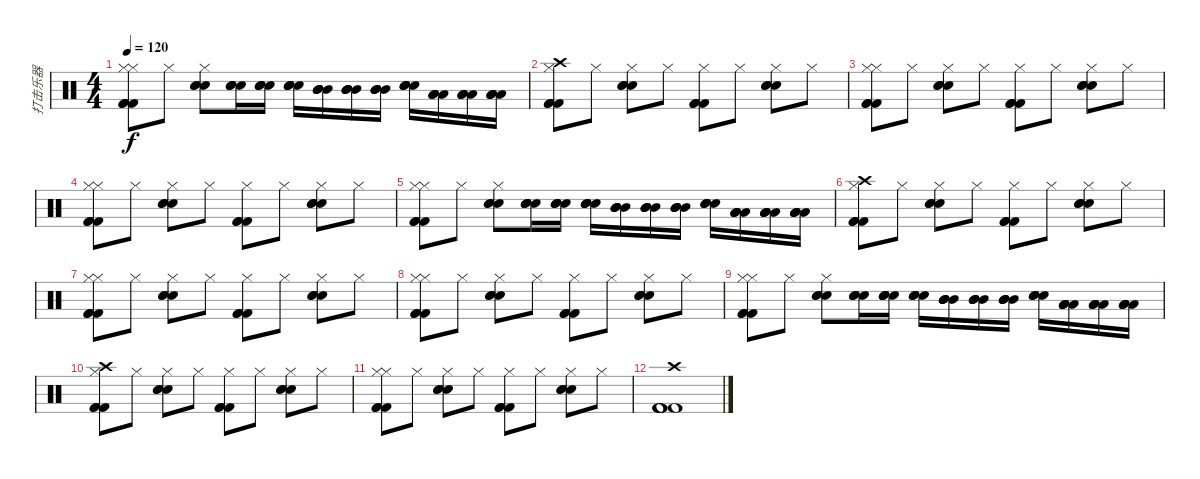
\track ("打击乐器" "打击乐器") {instrument percussion}
\staff {score}
\articulation defaults
\ts (4 4)
\tempo 120
\clef neutral
\ks c
("Kick (hit) 2" "Kick (hit) 2" "Kick (hit) 2" "Hi-Hat (closed)" "Hi-Hat (closed)").8{dy f} "Hi-Hat (closed)".8 ("Snare (hit) 2" "Snare (hit) 2" "Snare (hit) 2" "Hi-Hat (closed)").8 ("Snare (hit) 2" "Snare (hit) 2" "Snare (hit) 2" "Snare (hit) 2").16 ("Snare (hit) 2" "Snare (hit) 2" "Snare (hit) 2" "Snare (hit) 2").16 ("Snare (hit) 2" "Snare (hit) 2" "Snare (hit) 2" "Snare (hit) 2").16 ("Mid Tom (hit)" "Mid Tom (hit)" "Mid Tom (hit)" "Mid Tom (hit)").16 ("Mid Tom (hit)" "Mid Tom (hit)" "Mid Tom (hit)" "Mid Tom (hit)").16 ("Mid Tom (hit)" "Mid Tom (hit)" "Mid Tom (hit)" "Mid Tom (hit)").16 ("Snare (hit) 2" "Snare (hit) 2" "Snare (hit) 2" "Snare (hit) 2").16 ("Low Tom (hit)" "Low Tom (hit)" "Low Tom (hit)" "Low Tom (hit)").16 ("Low Tom (hit)" "Low Tom (hit)" "Low Tom (hit)" "Low Tom (hit)").16 ("Low Tom (hit)" "Low Tom (hit)" "Low Tom (hit)" "Low Tom (hit)").16 |
("Kick (hit) 2" "Kick (hit) 2" "Kick (hit) 2" "Hi-Hat (closed)" "Crash high (hit)").8 "Hi-Hat (closed)".8 ("Snare (hit) 2" "Snare (hit) 2" "Snare (hit) 2" "Hi-Hat (closed)").8 "Hi-Hat (closed)".8 ("Kick (hit) 2" "Kick (hit) 2" "Kick (hit) 2" "Hi-Hat (closed)").8 "Hi-Hat (closed)".8 ("Snare (hit) 2" "Snare (hit) 2" "Snare (hit) 2" "Hi-Hat (closed)").8 "Hi-Hat (closed)".8 |
("Kick (hit) 2" "Kick (hit) 2" "Kick (hit) 2" "Hi-Hat (closed)" "Hi-Hat (closed)").8 "Hi-Hat (closed)".8 ("Snare (hit) 2" "Snare (hit) 2" "Snare (hit) 2" "Hi-Hat (closed)").8 "Hi-Hat (closed)".8 ("Kick (hit) 2" "Kick (hit) 2" "Kick (hit) 2" "Hi-Hat (closed)").8 "Hi-Hat (closed)".8 ("Snare (hit) 2" "Snare (hit) 2" "Snare (hit) 2" "Hi-Hat (closed)").8 "Hi-Hat (closed)".8 |
("Kick (hit) 2" "Kick (hit) 2" "Kick (hit) 2" "Hi-Hat (closed)" "Hi-Hat (closed)").8 "Hi-Hat (closed)".8 ("Snare (hit) 2" "Snare (hit) 2" "Snare (hit) 2" "Hi-Hat (closed)").8 "Hi-Hat (closed)".8 ("Kick (hit) 2" "Kick (hit) 2" "Kick (hit) 2" "Hi-Hat (closed)").8 "Hi-Hat (closed)".8 ("Snare (hit) 2" "Snare (hit) 2" "Snare (hit) 2" "Hi-Hat (closed)").8 "Hi-Hat (closed)".8 |
("Kick (hit) 2" "Kick (hit) 2" "Kick (hit) 2" "Hi-Hat (closed)" "Hi-Hat (closed)").8 "Hi-Hat (closed)".8 ("Snare (hit) 2" "Snare (hit) 2" "Snare (hit) 2" "Hi-Hat (closed)").8 ("Snare (hit) 2" "Snare (hit) 2" "Snare (hit) 2" "Snare (hit) 2").16 ("Snare (hit) 2" "Snare (hit) 2" "Snare (hit) 2" "Snare (hit) 2").16 ("Snare (hit) 2" "Snare (hit) 2" "Snare (hit) 2" "Snare (hit) 2").16 ("Mid Tom (hit)" "Mid Tom (hit)" "Mid Tom (hit)" "Mid Tom (hit)").16 ("Mid Tom (hit)" "Mid Tom (hit)" "Mid Tom (hit)" "Mid Tom (hit)").16 ("Mid Tom (hit)" "Mid Tom (hit)" "Mid Tom (hit)" "Mid Tom (hit)").16 ("Snare (hit) 2" "Snare (hit) 2" "Snare (hit) 2" "Snare (hit) 2").16 ("Low Tom (hit)" "Low Tom (hit)" "Low Tom (hit)" "Low Tom (hit)").16 ("Low Tom (hit)" "Low Tom (hit)" "Low Tom (hit)" "Low Tom (hit)").16 ("Low Tom (hit)" "Low Tom (hit)" "Low Tom (hit)" "Low Tom (hit)").16 |
("Kick (hit) 2" "Kick (hit) 2" "Kick (hit) 2" "Hi-Hat (closed)" "Crash high (hit)").8 "Hi-Hat (closed)".8 ("Snare (hit) 2" "Snare (hit) 2" "Snare (hit) 2" "Hi-Hat (closed)").8 "Hi-Hat (closed)".8 ("Kick (hit) 2" "Kick (hit) 2" "Kick (hit) 2" "Hi-Hat (closed)").8 "Hi-Hat (closed)".8 ("Snare (hit) 2" "Snare (hit) 2" "Snare (hit) 2" "Hi-Hat (closed)").8 "Hi-Hat (closed)".8 |
("Kick (hit) 2" "Kick (hit) 2" "Kick (hit) 2" "Hi-Hat (closed)" "Hi-Hat (closed)").8 "Hi-Hat (closed)".8 ("Snare (hit) 2" "Snare (hit) 2" "Snare (hit) 2" "Hi-Hat (closed)").8 "Hi-Hat (closed)".8 ("Kick (hit) 2" "Kick (hit) 2" "Kick (hit) 2" "Hi-Hat (closed)").8 "Hi-Hat (closed)".8 ("Snare (hit) 2" "Snare (hit) 2" "Snare (hit) 2" "Hi-Hat (closed)").8 "Hi-Hat (closed)".8 |
("Kick (hit) 2" "Kick (hit) 2" "Kick (hit) 2" "Hi-Hat (closed)" "Hi-Hat (closed)").8 "Hi-Hat (closed)".8 ("Snare (hit) 2" "Snare (hit) 2" "Snare (hit) 2" "Hi-Hat (closed)").8 "Hi-Hat (closed)".8 ("Kick (hit) 2" "Kick (hit) 2" "Kick (hit) 2" "Hi-Hat (closed)").8 "Hi-Hat (closed)".8 ("Snare (hit) 2" "Snare (hit) 2" "Snare (hit) 2" "Hi-Hat (closed)").8 "Hi-Hat (closed)".8 |
("Kick (hit) 2" "Kick (hit) 2" "Kick (hit) 2" "Hi-Hat (closed)" "Hi-Hat (closed)").8 "Hi-Hat (closed)".8 ("Snare (hit) 2" "Snare (hit) 2" "Snare (hit) 2" "Hi-Hat (closed)").8 ("Snare (hit) 2" "Snare (hit) 2" "Snare (hit) 2" "Snare (hit) 2").16 ("Snare (hit) 2" "Snare (hit) 2" "Snare (hit) 2" "Snare (hit) 2").16 ("Snare (hit) 2" "Snare (hit) 2" "Snare (hit) 2" "Snare (hit) 2").16 ("Mid Tom (hit)" "Mid Tom (hit)" "Mid Tom (hit)" "Mid Tom (hit)").16 ("Mid Tom (hit)" "Mid Tom (hit)" "Mid Tom (hit)" "Mid Tom (hit)").16 ("Mid Tom (hit)" "Mid Tom (hit)" "Mid Tom (hit)" "Mid Tom (hit)").16 ("Snare (hit) 2" "Snare (hit) 2" "Snare (hit) 2" "Snare (hit) 2").16 ("Low Tom (hit)" "Low Tom (hit)" "Low Tom (hit)" "Low Tom (hit)").16 ("Low Tom (hit)" "Low Tom (hit)" "Low Tom (hit)" "Low Tom (hit)").16 ("Low Tom (hit)" "Low Tom (hit)" "Low Tom (hit)" "Low Tom (hit)").16 |
("Kick (hit) 2" "Kick (hit) 2" "Kick (hit) 2" "Hi-Hat (closed)" "Crash high (hit)").8 "Hi-Hat (closed)".8 ("Snare (hit) 2" "Snare (hit) 2" "Snare (hit) 2" "Hi-Hat (closed)").8 "Hi-Hat (closed)".8 ("Kick (hit) 2" "Kick (hit) 2" "Kick (hit) 2" "Hi-Hat (closed)").8 "Hi-Hat (closed)".8 ("Snare (hit) 2" "Snare (hit) 2" "Snare (hit) 2" "Hi-Hat (closed)").8 "Hi-Hat (closed)".8 |
("Kick (hit) 2" "Kick (hit) 2" "Kick (hit) 2" "Hi-Hat (closed)" "Hi-Hat (closed)").8 "Hi-Hat (closed)".8 ("Snare (hit) 2" "Snare (hit) 2" "Snare (hit) 2" "Hi-Hat (closed)").8 "Hi-Hat (closed)".8 ("Kick (hit) 2" "Kick (hit) 2" "Kick (hit) 2" "Hi-Hat (closed)").8 "Hi-Hat (closed)".8 ("Snare (hit) 2" "Snare (hit) 2" "Snare (hit) 2" "Hi-Hat (closed)").8 "Hi-Hat (closed)".8 |
("Crash high (hit)" "Kick (hit) 2" "Kick (hit) 2" "Kick (hit) 2" "Kick (hit) 2").1
